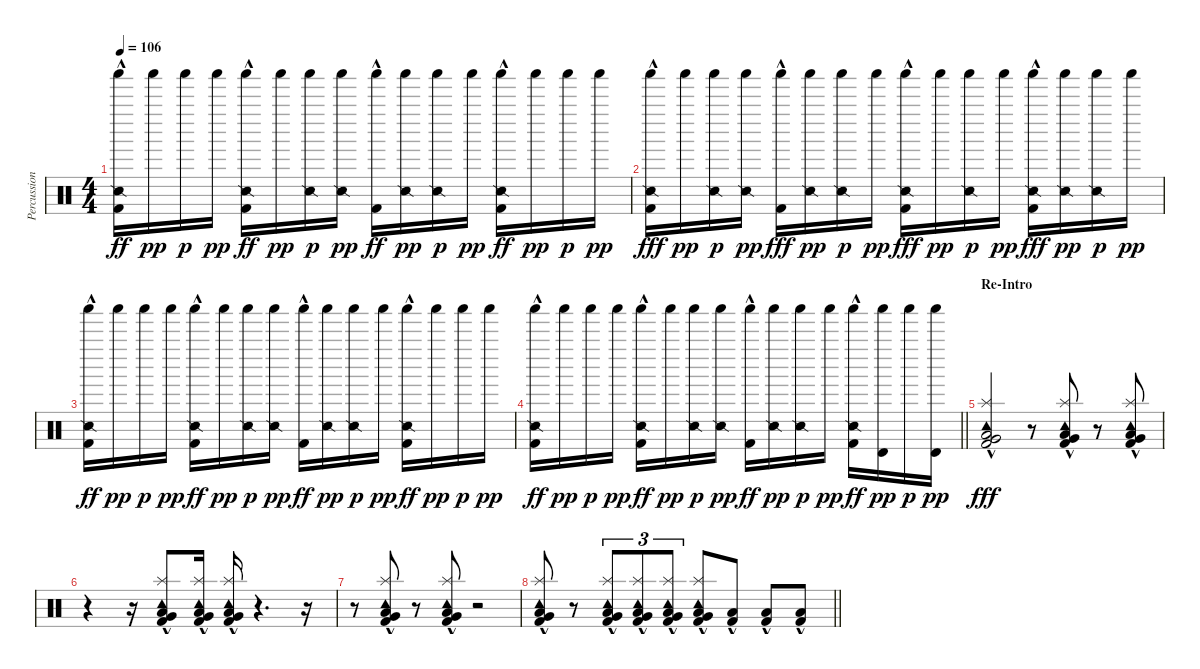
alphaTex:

\track ("Percussion" "Percussion") {instrument percussion}
\staff {score}
\articulation defaults
\ts (4 4)
\tempo 106
\clef neutral
\ks c
("Snare (side stick) 2" "Shaker (hit)" "Kick (hit) 2"{hac}).16{dy ff} "Shaker (hit)".16{dy pp} "Shaker (hit)".16{dy p} "Shaker (hit)".16{dy pp} ("Snare (side stick) 2" "Shaker (hit)" "Kick (hit) 2"{hac}).16{dy ff} "Shaker (hit)".16{dy pp} ("Snare (side stick) 2" "Shaker (hit)").16{dy p} ("Snare (side stick) 2" "Shaker (hit)").16{dy pp} ("Shaker (hit)" "Kick (hit) 2"{hac}).16{dy ff} ("Snare (side stick) 2" "Shaker (hit)").16{dy pp} ("Snare (side stick) 2" "Shaker (hit)").16{dy p} "Shaker (hit)".16{dy pp} ("Snare (side stick) 2" "Shaker (hit)" "Kick (hit) 2"{hac}).16{dy ff} "Shaker (hit)".16{dy pp} "Shaker (hit)".16{dy p} "Shaker (hit)".16{dy pp} |
("Snare (side stick) 2" "Shaker (hit)" "Kick (hit) 2"{hac}).16{dy fff} "Shaker (hit)".16{dy pp} ("Snare (side stick) 2" "Shaker (hit)").16{dy p} ("Snare (side stick) 2" "Shaker (hit)").16{dy pp} ("Shaker (hit)" "Kick (hit) 2"{hac}).16{dy fff} ("Snare (side stick) 2" "Shaker (hit)").16{dy pp} ("Snare (side stick) 2" "Shaker (hit)").16{dy p} "Shaker (hit)".16{dy pp} ("Snare (side stick) 2" "Shaker (hit)" "Kick (hit) 2"{hac}).16{dy fff} "Shaker (hit)".16{dy pp} ("Snare (side stick) 2" "Shaker (hit)").16{dy p} "Shaker (hit)".16{dy pp} ("Snare (side stick) 2" "Shaker (hit)" "Kick (hit) 2"{hac}).16{dy fff} ("Snare (side stick) 2" "Shaker (hit)").16{dy pp} ("Snare (side stick) 2" "Shaker (hit)").16{dy p} "Shaker (hit)".16{dy pp} |
("Snare (side stick) 2" "Shaker (hit)" "Kick (hit) 2"{hac}).16{dy ff} "Shaker (hit)".16{dy pp} "Shaker (hit)".16{dy p} "Shaker (hit)".16{dy pp} ("Snare (side stick) 2" "Shaker (hit)" "Kick (hit) 2"{hac}).16{dy ff} "Shaker (hit)".16{dy pp} ("Snare (side stick) 2" "Shaker (hit)").16{dy p} ("Snare (side stick) 2" "Shaker (hit)").16{dy pp} ("Shaker (hit)" "Kick (hit) 2"{hac}).16{dy ff} ("Snare (side stick) 2" "Shaker (hit)").16{dy pp} ("Snare (side stick) 2" "Shaker (hit)").16{dy p} "Shaker (hit)".16{dy pp} ("Snare (side stick) 2" "Shaker (hit)" "Kick (hit) 2"{hac}).16{dy ff} "Shaker (hit)".16{dy pp} "Shaker (hit)".16{dy p} "Shaker (hit)".16{dy pp} |
\barLineRight lightlight
("Snare (side stick) 2" "Shaker (hit)" "Kick (hit) 2"{hac}).16{dy ff} "Shaker (hit)".16{dy pp} "Shaker (hit)".16{dy p} "Shaker (hit)".16{dy pp} ("Snare (side stick) 2" "Shaker (hit)" "Kick (hit) 2"{hac}).16{dy ff} "Shaker (hit)".16{dy pp} ("Snare (side stick) 2" "Shaker (hit)").16{dy p} ("Snare (side stick) 2" "Shaker (hit)").16{dy pp} ("Shaker (hit)" "Kick (hit) 2"{hac}).16{dy ff} ("Snare (side stick) 2" "Shaker (hit)").16{dy pp} ("Snare (side stick) 2" "Shaker (hit)").16{dy p} "Shaker (hit)".16{dy pp} ("Snare (side stick) 2" "Shaker (hit)" "Kick (hit) 2"{hac}).16{dy ff} ("Timbale high (hit)" "Shaker (hit)").16{dy pp} "Shaker (hit)".16{dy p} ("Timbale high (hit)" "Shaker (hit)").16{dy pp} |
\section ("" "Re-Intro")
("Splash (hit)"{hac} "Tambourine (hit)"{hac} "Very Low Tom (hit)"{hac} "Low Floor Tom (hit)"{hac} "Kick (hit) 2"{hac}).2{dy fff} r.8 ("Splash (hit)"{hac} "Tambourine (hit)"{hac} "Very Low Tom (hit)"{hac} "Low Floor Tom (hit)"{hac} "Kick (hit) 2"{hac}).8 r.8 ("Splash (hit)"{hac} "Tambourine (hit)"{hac} "Very Low Tom (hit)"{hac} "Low Floor Tom (hit)"{hac} "Kick (hit) 2"{hac}).8 |
r.4 r.16 ("Splash (hit)"{hac} "Tambourine (hit)"{hac} "Very Low Tom (hit)"{hac} "Low Floor Tom (hit)"{hac} "Kick (hit) 2"{hac}).8 ("Splash (hit)"{hac} "Tambourine (hit)"{hac} "Very Low Tom (hit)"{hac} "Low Floor Tom (hit)"{hac} "Kick (hit) 2"{hac}).16 ("Splash (hit)"{hac} "Tambourine (hit)"{hac} "Very Low Tom (hit)"{hac} "Low Floor Tom (hit)"{hac} "Kick (hit) 2"{hac}).16 r.4{d} r.16 |
r.8 ("Splash (hit)"{hac} "Tambourine (hit)"{hac} "Very Low Tom (hit)"{hac} "Low Floor Tom (hit)"{hac} "Kick (hit) 2"{hac}).8 r.8 ("Splash (hit)"{hac} "Tambourine (hit)"{hac} "Very Low Tom (hit)"{hac} "Low Floor Tom (hit)"{hac} "Kick (hit) 2"{hac}).8 r.2 |
\barLineRight lightlight
("Splash (hit)"{hac} "Tambourine (hit)"{hac} "Very Low Tom (hit)"{hac} "Low Floor Tom (hit)"{hac} "Kick (hit) 2"{hac}).8 r.8 ("Splash (hit)"{hac} "Tambourine (hit)"{hac} "Very Low Tom (hit)"{hac} "Low Floor Tom (hit)"{hac} "Kick (hit) 2"{hac}).8{tu (3 2)} ("Splash (hit)"{hac} "Tambourine (hit)"{hac} "Very Low Tom (hit)"{hac} "Low Floor Tom (hit)"{hac} "Kick (hit) 2"{hac}).8{tu (3 2)} ("Splash (hit)"{hac} "Tambourine (hit)"{hac} "Very Low Tom (hit)"{hac} "Low Floor Tom (hit)"{hac} "Kick (hit) 2"{hac}).8{tu (3 2)} ("Splash (hit)"{hac} "Tambourine (hit)"{hac} "Very Low Tom (hit)"{hac} "Low Floor Tom (hit)"{hac} "Kick (hit) 2"{hac}).8 ("Low Floor Tom (hit)"{hac} "Kick (hit) 2"{hac}).8 ("Low Floor Tom (hit)"{hac} "Kick (hit) 2"{hac}).8 ("Low Floor Tom (hit)"{hac} "Kick (hit) 2"{hac}).8
